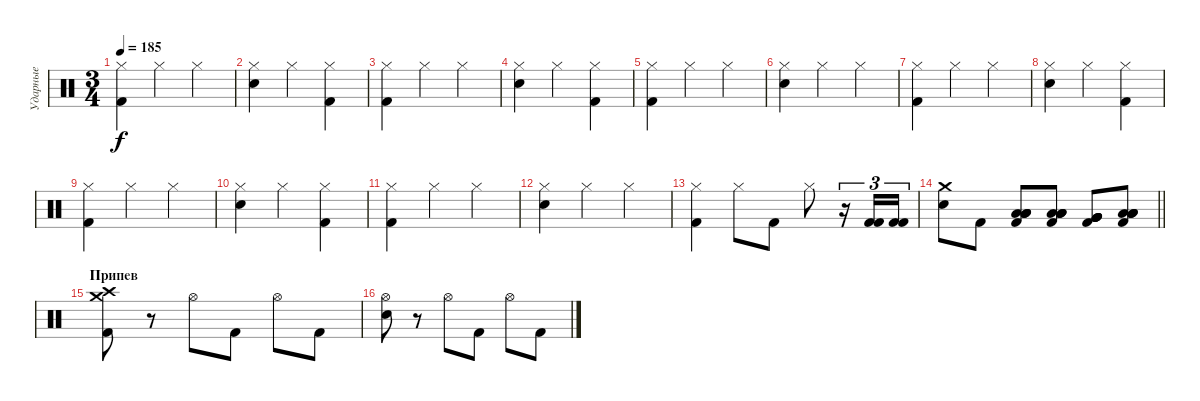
\track ("Ударные" "Ударные") {instrument percussion}
\staff {score}
\articulation defaults
\ts (3 4)
\tempo 185
\clef neutral
\ks c
("Hi-Hat (closed)" "Kick (hit) 2").4{dy f} "Hi-Hat (closed)".4 "Hi-Hat (closed)".4 |
("Hi-Hat (closed)" "Snare (hit) 2").4 "Hi-Hat (closed)".4 ("Hi-Hat (closed)" "Kick (hit) 2").4 |
("Hi-Hat (closed)" "Kick (hit) 2").4 "Hi-Hat (closed)".4 "Hi-Hat (closed)".4 |
("Hi-Hat (closed)" "Snare (hit) 2").4 "Hi-Hat (closed)".4 ("Hi-Hat (closed)" "Kick (hit) 2").4 |
("Hi-Hat (closed)" "Kick (hit) 2").4 "Hi-Hat (closed)".4 "Hi-Hat (closed)".4 |
("Hi-Hat (closed)" "Snare (hit) 2").4 "Hi-Hat (closed)".4 "Hi-Hat (closed)".4 |
("Hi-Hat (closed)" "Kick (hit) 2").4 "Hi-Hat (closed)".4 "Hi-Hat (closed)".4 |
("Hi-Hat (closed)" "Snare (hit) 2").4 "Hi-Hat (closed)".4 ("Hi-Hat (closed)" "Kick (hit) 2").4 |
("Hi-Hat (closed)" "Kick (hit) 2").4 "Hi-Hat (closed)".4 "Hi-Hat (closed)".4 |
("Hi-Hat (closed)" "Snare (hit) 2").4 "Hi-Hat (closed)".4 ("Hi-Hat (closed)" "Kick (hit) 2").4 |
("Hi-Hat (closed)" "Kick (hit) 2").4 "Hi-Hat (closed)".4 "Hi-Hat (closed)".4 |
("Hi-Hat (closed)" "Snare (hit) 2").4 "Hi-Hat (closed)".4 "Hi-Hat (closed)".4 |
("Hi-Hat (closed)" "Kick (hit) 2").4 "Hi-Hat (closed)".8 "Kick (hit) 2".8 "Hi-Hat (closed)".8 r.16{tu (3 2)} ("Kick (hit) 2" "Kick (hit) 2").16{tu (3 2)} ("Kick (hit) 2" "Kick (hit) 2").16{tu (3 2)} |
\barLineRight lightlight
("Snare (hit) 2" "Crash medium (hit)").8 "Kick (hit) 2".8 ("Low Tom (hit)" "Low Tom (hit)" "Kick (hit) 2" "Low Tom (hit)" "Low Tom (hit)").8 ("Low Tom (hit)" "Low Tom (hit)" "Kick (hit) 2" "Low Tom (hit)" "Low Tom (hit)").8 ("Very Low Tom (hit)" "Very Low Tom (hit)" "Kick (hit) 2" "Very Low Tom (hit)" "Very Low Tom (hit)").8 ("Low Floor Tom (hit)" "Low Floor Tom (hit)" "Kick (hit) 2" "Low Floor Tom (hit)" "Low Floor Tom (hit)").8 |
\section ("" "Припев")
("Crash high (hit)" "Crash medium (hit)" "Kick (hit) 2").8 r.8 "Hi-Hat (open)".8 "Kick (hit) 2".8 "Hi-Hat (open)".8 "Kick (hit) 2".8 |
("Hi-Hat (open)" "Snare (hit) 2").8 r.8 "Hi-Hat (open)".8 "Kick (hit) 2".8 "Hi-Hat (open)".8 "Kick (hit) 2".8
